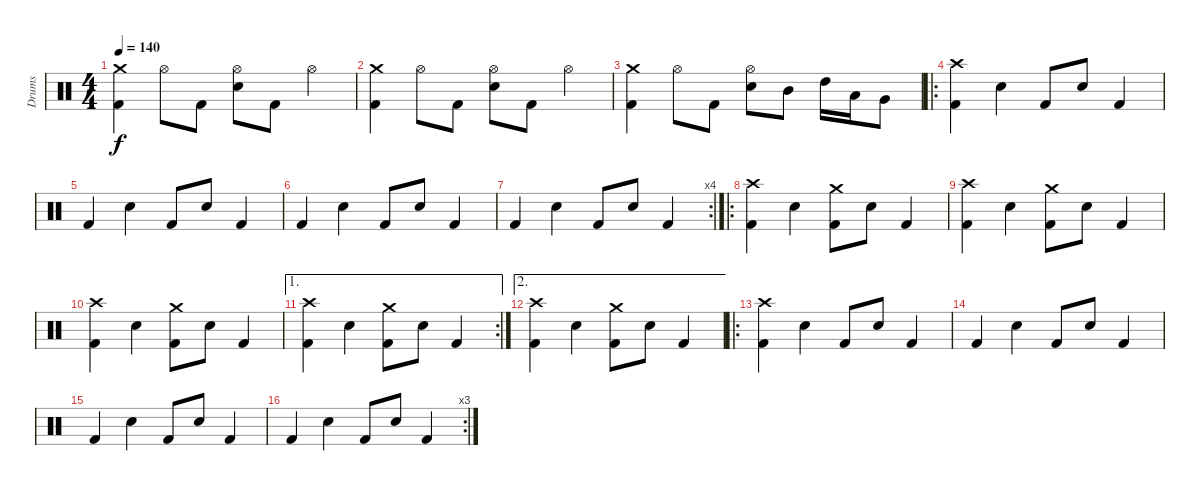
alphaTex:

\track ("Drums" "Drums") {instrument percussion}
\staff {score}
\articulation defaults
\ts (4 4)
\tempo 140
\clef neutral
\ks c
("Kick (hit) 2" "Crash medium (hit)").4{dy f} "Hi-Hat (open)".8 "Kick (hit) 2".8 ("Hi-Hat (open)" "Snare (hit) 2").8 "Kick (hit) 2".8 "Hi-Hat (open)".4 |
("Kick (hit) 2" "Crash medium (hit)").4 "Hi-Hat (open)".8 "Kick (hit) 2".8 ("Hi-Hat (open)" "Snare (hit) 2").8 "Kick (hit) 2".8 "Hi-Hat (open)".4 |
("Kick (hit) 2" "Crash medium (hit)").4 "Hi-Hat (open)".8 "Kick (hit) 2".8 ("Hi-Hat (open)" "Snare (hit) 2").8 "Mid Tom (hit)".8 "High Tom (hit)".16 "Low Tom (hit)".16 "Very Low Tom (hit)".8 |
\ro
("Crash high (hit)" "Kick (hit) 2").4 "Snare (hit) 2".4 "Kick (hit) 2".8 "Snare (hit) 2".8 "Kick (hit) 2".4 |
"Kick (hit) 2".4 "Snare (hit) 2".4 "Kick (hit) 2".8 "Snare (hit) 2".8 "Kick (hit) 2".4 |
"Kick (hit) 2".4 "Snare (hit) 2".4 "Kick (hit) 2".8 "Snare (hit) 2".8 "Kick (hit) 2".4 |
\rc 4 "Kick (hit) 2".4 "Snare (hit) 2".4 "Kick (hit) 2".8 "Snare (hit) 2".8 "Kick (hit) 2".4
|
\ro
("Crash high (hit)" "Kick (hit) 2").4 "Snare (hit) 2".4 ("Crash medium (hit)" "Kick (hit) 2").8 "Snare (hit) 2".8 "Kick (hit) 2".4 |
("Crash high (hit)" "Kick (hit) 2").4 "Snare (hit) 2".4 ("Crash medium (hit)" "Kick (hit) 2").8 "Snare (hit) 2".8 "Kick (hit) 2".4 |
("Crash high (hit)" "Kick (hit) 2").4 "Snare (hit) 2".4 ("Crash medium (hit)" "Kick (hit) 2").8 "Snare (hit) 2".8 "Kick (hit) 2".4 |
\ae 1
\rc 2
("Crash high (hit)" "Kick (hit) 2").4 "Snare (hit) 2".4 ("Crash medium (hit)" "Kick (hit) 2").8 "Snare (hit) 2".8 "Kick (hit) 2".4 |
\ae 2
("Crash high (hit)" "Kick (hit) 2").4 "Snare (hit) 2".4 ("Crash medium (hit)" "Kick (hit) 2").8 "Snare (hit) 2".8 "Kick (hit) 2".4 |
\ro
("Crash high (hit)" "Kick (hit) 2").4 "Snare (hit) 2".4 "Kick (hit) 2".8 "Snare (hit) 2".8 "Kick (hit) 2".4 |
"Kick (hit) 2".4 "Snare (hit) 2".4 "Kick (hit) 2".8 "Snare (hit) 2".8 "Kick (hit) 2".4 |
"Kick (hit) 2".4 "Snare (hit) 2".4 "Kick (hit) 2".8 "Snare (hit) 2".8 "Kick (hit) 2".4 |
\rc 3 "Kick (hit) 2".4 "Snare (hit) 2".4 "Kick (hit) 2".8 "Snare (hit) 2".8 "Kick (hit) 2".4
